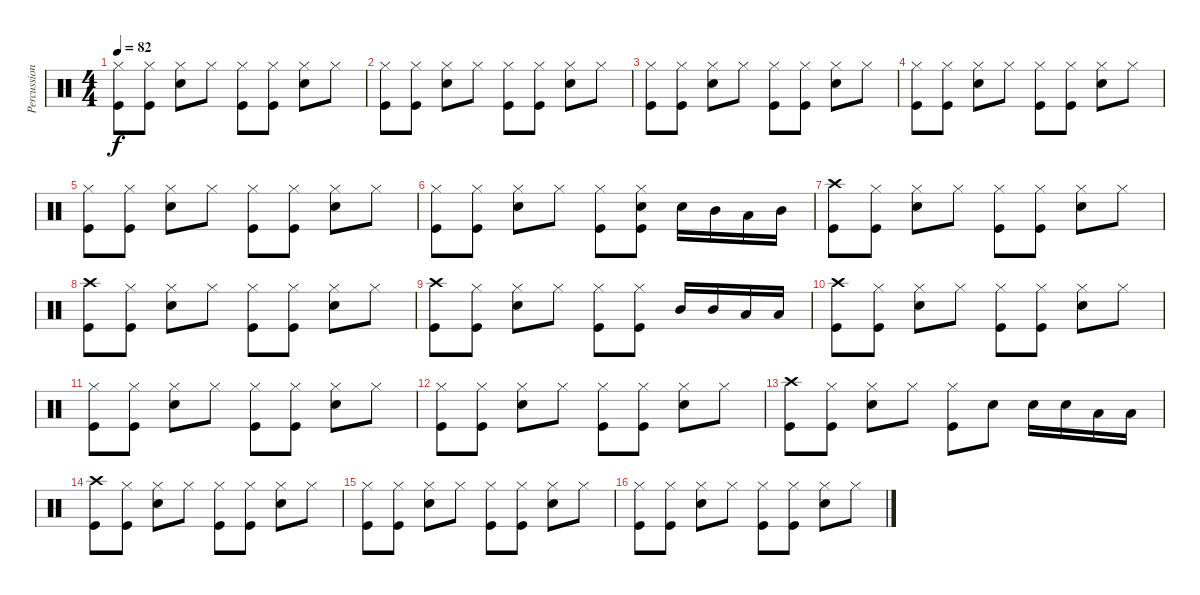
\track ("Percussioni" "Percussion") {instrument percussion}
\staff {score}
\articulation defaults
\ts (4 4)
\tempo 82
\clef neutral
\ks c
("Hi-Hat (closed)" "Kick (hit)").8{dy f} ("Hi-Hat (closed)" "Kick (hit)").8 ("Hi-Hat (closed)" "Snare (hit) 2").8 "Hi-Hat (closed)".8 ("Hi-Hat (closed)" "Kick (hit)").8 ("Hi-Hat (closed)" "Kick (hit)").8 ("Hi-Hat (closed)" "Snare (hit) 2").8 "Hi-Hat (closed)".8 |
("Hi-Hat (closed)" "Kick (hit)").8 ("Hi-Hat (closed)" "Kick (hit)").8 ("Hi-Hat (closed)" "Snare (hit) 2").8 "Hi-Hat (closed)".8 ("Hi-Hat (closed)" "Kick (hit)").8 ("Hi-Hat (closed)" "Kick (hit)").8 ("Hi-Hat (closed)" "Snare (hit) 2").8 "Hi-Hat (closed)".8 |
("Hi-Hat (closed)" "Kick (hit)").8 ("Hi-Hat (closed)" "Kick (hit)").8 ("Hi-Hat (closed)" "Snare (hit) 2").8 "Hi-Hat (closed)".8 ("Hi-Hat (closed)" "Kick (hit)").8 ("Hi-Hat (closed)" "Kick (hit)").8 ("Hi-Hat (closed)" "Snare (hit) 2").8 "Hi-Hat (closed)".8 |
("Hi-Hat (closed)" "Kick (hit)").8 ("Hi-Hat (closed)" "Kick (hit)").8 ("Hi-Hat (closed)" "Snare (hit) 2").8 "Hi-Hat (closed)".8 ("Hi-Hat (closed)" "Kick (hit)").8 ("Hi-Hat (closed)" "Kick (hit)").8 ("Hi-Hat (closed)" "Snare (hit) 2").8 "Hi-Hat (closed)".8 |
("Hi-Hat (closed)" "Kick (hit)").8 ("Hi-Hat (closed)" "Kick (hit)").8 ("Hi-Hat (closed)" "Snare (hit) 2").8 "Hi-Hat (closed)".8 ("Hi-Hat (closed)" "Kick (hit)").8 ("Hi-Hat (closed)" "Kick (hit)").8 ("Hi-Hat (closed)" "Snare (hit) 2").8 "Hi-Hat (closed)".8 |
("Hi-Hat (closed)" "Kick (hit)").8 ("Hi-Hat (closed)" "Kick (hit)").8 ("Hi-Hat (closed)" "Snare (hit) 2").8 "Hi-Hat (closed)".8 ("Hi-Hat (closed)" "Kick (hit)").8 ("Hi-Hat (closed)" "Snare (hit) 2" "Kick (hit)").8 "Snare (hit) 2".16 "Mid Tom (hit)".16 "Low Tom (hit)".16 "Mid Tom (hit)".16 |
("Crash high (hit)" "Kick (hit)").8 ("Hi-Hat (closed)" "Kick (hit)").8 ("Hi-Hat (closed)" "Snare (hit) 2").8 "Hi-Hat (closed)".8 ("Hi-Hat (closed)" "Kick (hit)").8 ("Hi-Hat (closed)" "Kick (hit)").8 ("Hi-Hat (closed)" "Snare (hit) 2").8 "Hi-Hat (closed)".8 |
("Crash high (hit)" "Kick (hit)").8 ("Hi-Hat (closed)" "Kick (hit)").8 ("Hi-Hat (closed)" "Snare (hit) 2").8 "Hi-Hat (closed)".8 ("Hi-Hat (closed)" "Kick (hit)").8 ("Hi-Hat (closed)" "Kick (hit)").8 ("Hi-Hat (closed)" "Snare (hit) 2").8 "Hi-Hat (closed)".8 |
("Crash high (hit)" "Kick (hit)").8 ("Hi-Hat (closed)" "Kick (hit)").8 ("Hi-Hat (closed)" "Snare (hit) 2").8 "Hi-Hat (closed)".8 ("Hi-Hat (closed)" "Kick (hit)").8 ("Hi-Hat (closed)" "Kick (hit)").8 "Mid Tom (hit)".16 "Mid Tom (hit)".16 "Low Tom (hit)".16 "Low Tom (hit)".16 |
("Crash high (hit)" "Kick (hit)").8 ("Hi-Hat (closed)" "Kick (hit)").8 ("Hi-Hat (closed)" "Snare (hit) 2").8 "Hi-Hat (closed)".8 ("Hi-Hat (closed)" "Kick (hit)").8 ("Hi-Hat (closed)" "Kick (hit)").8 ("Hi-Hat (closed)" "Snare (hit) 2").8 "Hi-Hat (closed)".8 |
("Hi-Hat (closed)" "Kick (hit)").8 ("Hi-Hat (closed)" "Kick (hit)").8 ("Hi-Hat (closed)" "Snare (hit) 2").8 "Hi-Hat (closed)".8 ("Hi-Hat (closed)" "Kick (hit)").8 ("Hi-Hat (closed)" "Kick (hit)").8 ("Hi-Hat (closed)" "Snare (hit) 2").8 "Hi-Hat (closed)".8 |
("Hi-Hat (closed)" "Kick (hit)").8 ("Hi-Hat (closed)" "Kick (hit)").8 ("Hi-Hat (closed)" "Snare (hit) 2").8 "Hi-Hat (closed)".8 ("Hi-Hat (closed)" "Kick (hit)").8 ("Hi-Hat (closed)" "Kick (hit)").8 ("Hi-Hat (closed)" "Snare (hit) 2").8 "Hi-Hat (closed)".8 |
("Crash high (hit)" "Kick (hit)").8 ("Hi-Hat (closed)" "Kick (hit)").8 ("Hi-Hat (closed)" "Snare (hit) 2").8 "Hi-Hat (closed)".8 ("Hi-Hat (closed)" "Kick (hit)").8 "Snare (hit) 2".8 "Snare (hit) 2".16 "Snare (hit) 2".16 "Low Tom (hit)".16 "Low Tom (hit)".16 |
("Crash high (hit)" "Kick (hit)").8 ("Hi-Hat (closed)" "Kick (hit)").8 ("Hi-Hat (closed)" "Snare (hit) 2").8 "Hi-Hat (closed)".8 ("Hi-Hat (closed)" "Kick (hit)").8 ("Hi-Hat (closed)" "Kick (hit)").8 ("Hi-Hat (closed)" "Snare (hit) 2").8 "Hi-Hat (closed)".8 |
("Hi-Hat (closed)" "Kick (hit)").8 ("Hi-Hat (closed)" "Kick (hit)").8 ("Hi-Hat (closed)" "Snare (hit) 2").8 "Hi-Hat (closed)".8 ("Hi-Hat (closed)" "Kick (hit)").8 ("Hi-Hat (closed)" "Kick (hit)").8 ("Hi-Hat (closed)" "Snare (hit) 2").8 "Hi-Hat (closed)".8 |
("Hi-Hat (closed)" "Kick (hit)").8 ("Hi-Hat (closed)" "Kick (hit)").8 ("Hi-Hat (closed)" "Snare (hit) 2").8 "Hi-Hat (closed)".8 ("Hi-Hat (closed)" "Kick (hit)").8 ("Hi-Hat (closed)" "Kick (hit)").8 ("Hi-Hat (closed)" "Snare (hit) 2").8 "Hi-Hat (closed)".8
